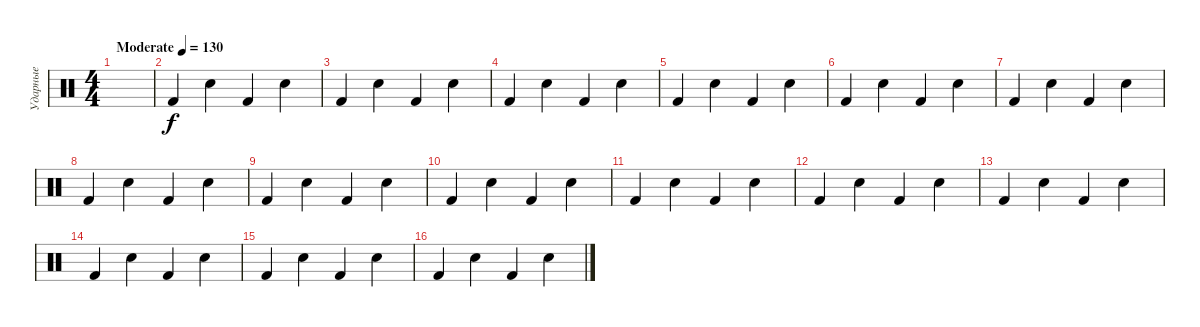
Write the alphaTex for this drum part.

\track ("Ударные" "Ударные") {instrument percussion}
\staff {score}
\articulation defaults
\ts (4 4)
\tempo (130 "Moderate")
\clef neutral
\ks c
|
"Kick (hit) 2".4 "Electric Snare (hit)".4 "Kick (hit) 2".4 "Electric Snare (hit)".4 |
"Kick (hit) 2".4 "Electric Snare (hit)".4 "Kick (hit) 2".4 "Electric Snare (hit)".4 |
"Kick (hit) 2".4 "Electric Snare (hit)".4 "Kick (hit) 2".4 "Electric Snare (hit)".4 |
"Kick (hit) 2".4 "Electric Snare (hit)".4 "Kick (hit) 2".4 "Electric Snare (hit)".4 |
"Kick (hit) 2".4 "Electric Snare (hit)".4 "Kick (hit) 2".4 "Electric Snare (hit)".4 |
"Kick (hit) 2".4 "Electric Snare (hit)".4 "Kick (hit) 2".4 "Electric Snare (hit)".4 |
"Kick (hit) 2".4 "Electric Snare (hit)".4 "Kick (hit) 2".4 "Electric Snare (hit)".4 |
"Kick (hit) 2".4 "Electric Snare (hit)".4 "Kick (hit) 2".4 "Electric Snare (hit)".4 |
"Kick (hit) 2".4 "Electric Snare (hit)".4 "Kick (hit) 2".4 "Electric Snare (hit)".4 |
"Kick (hit) 2".4 "Electric Snare (hit)".4 "Kick (hit) 2".4 "Electric Snare (hit)".4 |
"Kick (hit) 2".4 "Electric Snare (hit)".4 "Kick (hit) 2".4 "Electric Snare (hit)".4 |
"Kick (hit) 2".4 "Electric Snare (hit)".4 "Kick (hit) 2".4 "Electric Snare (hit)".4 |
"Kick (hit) 2".4 "Electric Snare (hit)".4 "Kick (hit) 2".4 "Electric Snare (hit)".4 |
"Kick (hit) 2".4 "Electric Snare (hit)".4 "Kick (hit) 2".4 "Electric Snare (hit)".4 |
"Kick (hit) 2".4 "Electric Snare (hit)".4 "Kick (hit) 2".4 "Electric Snare (hit)".4
